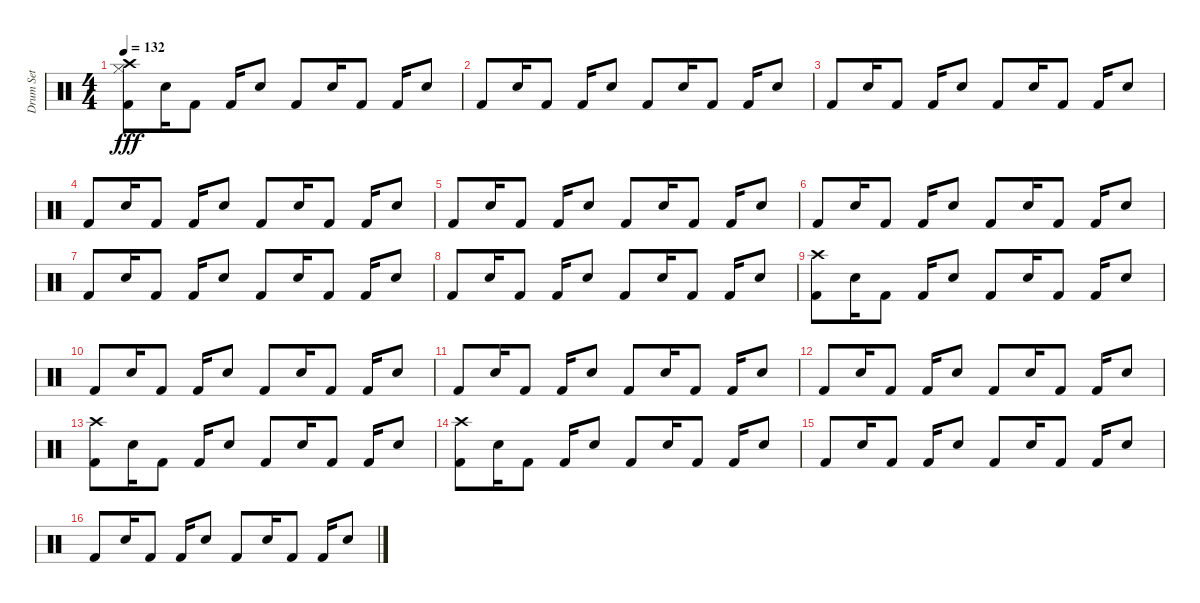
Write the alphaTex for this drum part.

\track ("Drum Set" "Drum Set") {instrument percussion}
\staff {score}
\articulation defaults
\ts (4 4)
\tempo 132
\clef neutral
\ks c
("Kick (hit) 2" "Hi-Hat (closed)" "Crash high (hit)").8{dy fff} "Electric Snare (hit)".16 "Kick (hit) 2".8 "Kick (hit) 2".16 "Electric Snare (hit)".8 "Kick (hit) 2".8 "Electric Snare (hit)".16 "Kick (hit) 2".8 "Kick (hit) 2".16 "Electric Snare (hit)".8 |
"Kick (hit) 2".8 "Electric Snare (hit)".16 "Kick (hit) 2".8 "Kick (hit) 2".16 "Electric Snare (hit)".8 "Kick (hit) 2".8 "Electric Snare (hit)".16 "Kick (hit) 2".8 "Kick (hit) 2".16 "Electric Snare (hit)".8 |
"Kick (hit) 2".8 "Electric Snare (hit)".16 "Kick (hit) 2".8 "Kick (hit) 2".16 "Electric Snare (hit)".8 "Kick (hit) 2".8 "Electric Snare (hit)".16 "Kick (hit) 2".8 "Kick (hit) 2".16 "Electric Snare (hit)".8 |
"Kick (hit) 2".8 "Electric Snare (hit)".16 "Kick (hit) 2".8 "Kick (hit) 2".16 "Electric Snare (hit)".8 "Kick (hit) 2".8 "Electric Snare (hit)".16 "Kick (hit) 2".8 "Kick (hit) 2".16 "Electric Snare (hit)".8 |
"Kick (hit) 2".8 "Electric Snare (hit)".16 "Kick (hit) 2".8 "Kick (hit) 2".16 "Electric Snare (hit)".8 "Kick (hit) 2".8 "Electric Snare (hit)".16 "Kick (hit) 2".8 "Kick (hit) 2".16 "Electric Snare (hit)".8 |
"Kick (hit) 2".8 "Electric Snare (hit)".16 "Kick (hit) 2".8 "Kick (hit) 2".16 "Electric Snare (hit)".8 "Kick (hit) 2".8 "Electric Snare (hit)".16 "Kick (hit) 2".8 "Kick (hit) 2".16 "Electric Snare (hit)".8 |
"Kick (hit) 2".8 "Electric Snare (hit)".16 "Kick (hit) 2".8 "Kick (hit) 2".16 "Electric Snare (hit)".8 "Kick (hit) 2".8 "Electric Snare (hit)".16 "Kick (hit) 2".8 "Kick (hit) 2".16 "Electric Snare (hit)".8 |
"Kick (hit) 2".8 "Electric Snare (hit)".16 "Kick (hit) 2".8 "Kick (hit) 2".16 "Electric Snare (hit)".8 "Kick (hit) 2".8 "Electric Snare (hit)".16 "Kick (hit) 2".8 "Kick (hit) 2".16 "Electric Snare (hit)".8 |
("Kick (hit) 2" "Crash high (hit)").8 "Electric Snare (hit)".16 "Kick (hit) 2".8 "Kick (hit) 2".16 "Electric Snare (hit)".8 "Kick (hit) 2".8 "Electric Snare (hit)".16 "Kick (hit) 2".8 "Kick (hit) 2".16 "Electric Snare (hit)".8 |
"Kick (hit) 2".8 "Electric Snare (hit)".16 "Kick (hit) 2".8 "Kick (hit) 2".16 "Electric Snare (hit)".8 "Kick (hit) 2".8 "Electric Snare (hit)".16 "Kick (hit) 2".8 "Kick (hit) 2".16 "Electric Snare (hit)".8 |
"Kick (hit) 2".8 "Electric Snare (hit)".16 "Kick (hit) 2".8 "Kick (hit) 2".16 "Electric Snare (hit)".8 "Kick (hit) 2".8 "Electric Snare (hit)".16 "Kick (hit) 2".8 "Kick (hit) 2".16 "Electric Snare (hit)".8 |
"Kick (hit) 2".8 "Electric Snare (hit)".16 "Kick (hit) 2".8 "Kick (hit) 2".16 "Electric Snare (hit)".8 "Kick (hit) 2".8 "Electric Snare (hit)".16 "Kick (hit) 2".8 "Kick (hit) 2".16 "Electric Snare (hit)".8 |
("Kick (hit) 2" "Crash high (hit)").8 "Electric Snare (hit)".16 "Kick (hit) 2".8 "Kick (hit) 2".16 "Electric Snare (hit)".8 "Kick (hit) 2".8 "Electric Snare (hit)".16 "Kick (hit) 2".8 "Kick (hit) 2".16 "Electric Snare (hit)".8 |
("Kick (hit) 2" "Crash high (hit)").8 "Electric Snare (hit)".16 "Kick (hit) 2".8 "Kick (hit) 2".16 "Electric Snare (hit)".8 "Kick (hit) 2".8 "Electric Snare (hit)".16 "Kick (hit) 2".8 "Kick (hit) 2".16 "Electric Snare (hit)".8 |
"Kick (hit) 2".8 "Electric Snare (hit)".16 "Kick (hit) 2".8 "Kick (hit) 2".16 "Electric Snare (hit)".8 "Kick (hit) 2".8 "Electric Snare (hit)".16 "Kick (hit) 2".8 "Kick (hit) 2".16 "Electric Snare (hit)".8 |
"Kick (hit) 2".8 "Electric Snare (hit)".16 "Kick (hit) 2".8 "Kick (hit) 2".16 "Electric Snare (hit)".8 "Kick (hit) 2".8 "Electric Snare (hit)".16 "Kick (hit) 2".8 "Kick (hit) 2".16 "Electric Snare (hit)".8
